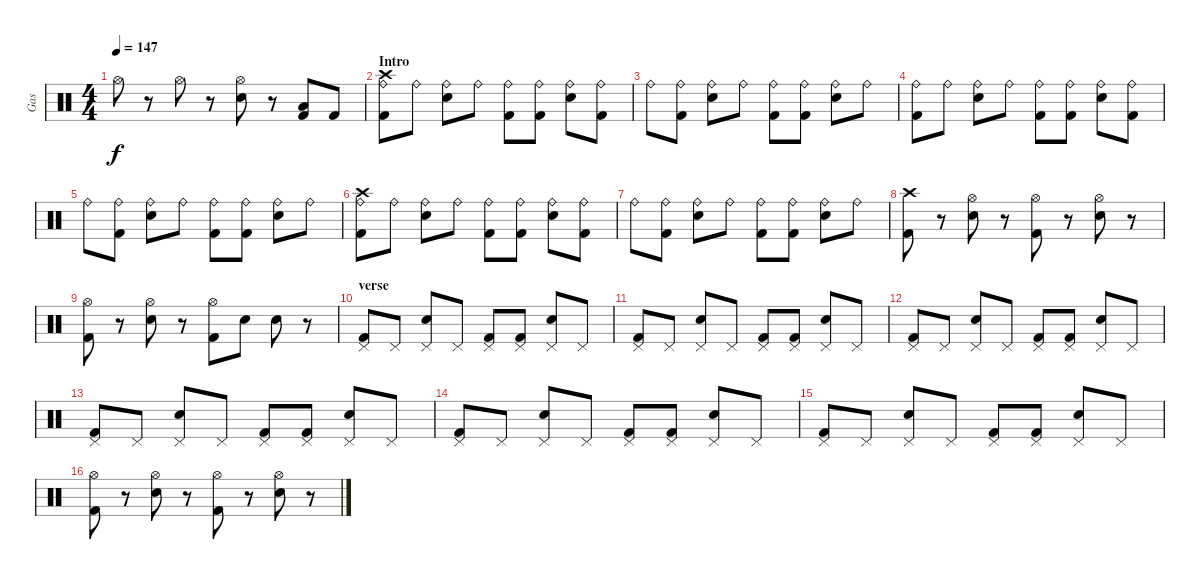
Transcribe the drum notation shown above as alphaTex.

\track ("Gas" "Gas") {instrument percussion}
\staff {score}
\articulation defaults
\ts (4 4)
\tempo 147
\clef neutral
\ks c "Hi-Hat (open)".8{dy f}
r.8 "Hi-Hat (open)".8 r.8 ("Hi-Hat (open)" "Electric Snare (hit)").8 r.8 ("Low Tom (hit)" "Kick (hit) 2").8 "Kick (hit) 2".8 |
\section ("" "Intro")
("Ride (bell)" "Crash high (hit)" "Kick (hit) 2").8 "Ride (bell)".8 ("Ride (bell)" "Electric Snare (hit)").8 "Ride (bell)".8 ("Ride (bell)" "Kick (hit) 2").8 ("Ride (bell)" "Kick (hit) 2").8 ("Ride (bell)" "Electric Snare (hit)").8 ("Ride (bell)" "Kick (hit) 2").8 |
"Ride (bell)".8 ("Ride (bell)" "Kick (hit) 2").8 ("Ride (bell)" "Electric Snare (hit)").8 "Ride (bell)".8 ("Ride (bell)" "Kick (hit) 2").8 ("Ride (bell)" "Kick (hit) 2").8 ("Ride (bell)" "Electric Snare (hit)").8 "Ride (bell)".8 |
("Ride (bell)" "Kick (hit) 2").8 "Ride (bell)".8 ("Ride (bell)" "Electric Snare (hit)").8 "Ride (bell)".8 ("Ride (bell)" "Kick (hit) 2").8 ("Ride (bell)" "Kick (hit) 2").8 ("Ride (bell)" "Electric Snare (hit)").8 ("Ride (bell)" "Kick (hit) 2").8 |
"Ride (bell)".8 ("Ride (bell)" "Kick (hit) 2").8 ("Ride (bell)" "Electric Snare (hit)").8 "Ride (bell)".8 ("Ride (bell)" "Kick (hit) 2").8 ("Ride (bell)" "Kick (hit) 2").8 ("Ride (bell)" "Electric Snare (hit)").8 "Ride (bell)".8 |
("Ride (bell)" "Crash high (hit)" "Kick (hit) 2").8 "Ride (bell)".8 ("Ride (bell)" "Electric Snare (hit)").8 "Ride (bell)".8 ("Ride (bell)" "Kick (hit) 2").8 ("Ride (bell)" "Kick (hit) 2").8 ("Ride (bell)" "Electric Snare (hit)").8 ("Ride (bell)" "Kick (hit) 2").8 |
"Ride (bell)".8 ("Ride (bell)" "Kick (hit) 2").8 ("Ride (bell)" "Electric Snare (hit)").8 "Ride (bell)".8 ("Ride (bell)" "Kick (hit) 2").8 ("Ride (bell)" "Kick (hit) 2").8 ("Ride (bell)" "Electric Snare (hit)").8 "Ride (bell)".8 |
("Crash high (hit)" "Kick (hit) 2").8 r.8 ("Hi-Hat (open)" "Electric Snare (hit)").8 r.8 ("Hi-Hat (open)" "Kick (hit) 2").8 r.8 ("Hi-Hat (open)" "Electric Snare (hit)").8 r.8 |
("Hi-Hat (open)" "Kick (hit) 2").8 r.8 ("Hi-Hat (open)" "Electric Snare (hit)").8 r.8 ("Hi-Hat (open)" "Kick (hit) 2").8 "Electric Snare (hit)".8 "Electric Snare (hit)".8 r.8 |
\section ("" "verse")
("Pedal Hi-Hat (hit)" "Kick (hit) 2").8 "Pedal Hi-Hat (hit)".8 ("Pedal Hi-Hat (hit)" "Electric Snare (hit)").8 "Pedal Hi-Hat (hit)".8 ("Pedal Hi-Hat (hit)" "Kick (hit) 2").8 ("Pedal Hi-Hat (hit)" "Kick (hit) 2").8 ("Pedal Hi-Hat (hit)" "Electric Snare (hit)").8 "Pedal Hi-Hat (hit)".8 |
("Pedal Hi-Hat (hit)" "Kick (hit) 2").8 "Pedal Hi-Hat (hit)".8 ("Pedal Hi-Hat (hit)" "Electric Snare (hit)").8 "Pedal Hi-Hat (hit)".8 ("Pedal Hi-Hat (hit)" "Kick (hit) 2").8 ("Pedal Hi-Hat (hit)" "Kick (hit) 2").8 ("Pedal Hi-Hat (hit)" "Electric Snare (hit)").8 "Pedal Hi-Hat (hit)".8 |
("Pedal Hi-Hat (hit)" "Kick (hit) 2").8 "Pedal Hi-Hat (hit)".8 ("Pedal Hi-Hat (hit)" "Electric Snare (hit)").8 "Pedal Hi-Hat (hit)".8 ("Pedal Hi-Hat (hit)" "Kick (hit) 2").8 ("Pedal Hi-Hat (hit)" "Kick (hit) 2").8 ("Pedal Hi-Hat (hit)" "Electric Snare (hit)").8 "Pedal Hi-Hat (hit)".8 |
("Pedal Hi-Hat (hit)" "Kick (hit) 2").8 "Pedal Hi-Hat (hit)".8 ("Pedal Hi-Hat (hit)" "Electric Snare (hit)").8 "Pedal Hi-Hat (hit)".8 ("Pedal Hi-Hat (hit)" "Kick (hit) 2").8 ("Pedal Hi-Hat (hit)" "Kick (hit) 2").8 ("Pedal Hi-Hat (hit)" "Electric Snare (hit)").8 "Pedal Hi-Hat (hit)".8 |
("Pedal Hi-Hat (hit)" "Kick (hit) 2").8 "Pedal Hi-Hat (hit)".8 ("Pedal Hi-Hat (hit)" "Electric Snare (hit)").8 "Pedal Hi-Hat (hit)".8 ("Pedal Hi-Hat (hit)" "Kick (hit) 2").8 ("Pedal Hi-Hat (hit)" "Kick (hit) 2").8 ("Pedal Hi-Hat (hit)" "Electric Snare (hit)").8 "Pedal Hi-Hat (hit)".8 |
("Pedal Hi-Hat (hit)" "Kick (hit) 2").8 "Pedal Hi-Hat (hit)".8 ("Pedal Hi-Hat (hit)" "Electric Snare (hit)").8 "Pedal Hi-Hat (hit)".8 ("Pedal Hi-Hat (hit)" "Kick (hit) 2").8 ("Pedal Hi-Hat (hit)" "Kick (hit) 2").8 ("Pedal Hi-Hat (hit)" "Electric Snare (hit)").8 "Pedal Hi-Hat (hit)".8 |
("Hi-Hat (open)" "Kick (hit) 2").8 r.8 ("Hi-Hat (open)" "Electric Snare (hit)").8 r.8 ("Hi-Hat (open)" "Kick (hit) 2").8 r.8 ("Hi-Hat (open)" "Electric Snare (hit)").8 r.8
